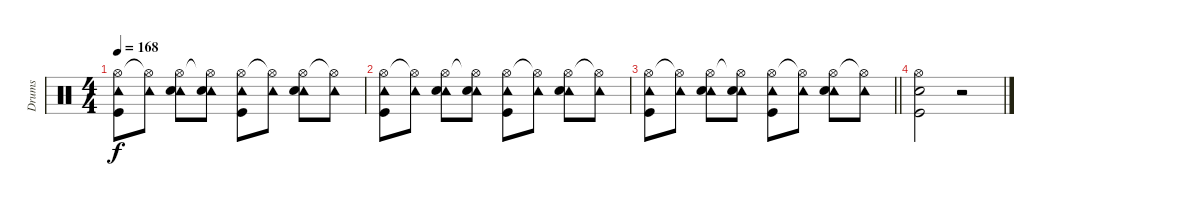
\track ("Drums" "Drums") {instrument percussion}
\staff {score}
\articulation defaults
\ts (4 4)
\tempo 168
\clef neutral
\ks c
("Hi-Hat (open)" "Tambourine (hit)" "Kick (hit)").8{dy f} ("Hi-Hat (open)"{t} "Tambourine (hit)").8 ("Hi-Hat (open)" "Tambourine (hit)" "Snare (hit) 2").8 ("Hi-Hat (open)"{t} "Tambourine (hit)" "Snare (hit) 2").8 ("Hi-Hat (open)" "Tambourine (hit)" "Kick (hit)").8 ("Hi-Hat (open)"{t} "Tambourine (hit)").8 ("Hi-Hat (open)" "Tambourine (hit)" "Snare (hit) 2").8 ("Hi-Hat (open)"{t} "Tambourine (hit)").8 |
("Hi-Hat (open)" "Tambourine (hit)" "Kick (hit)").8 ("Hi-Hat (open)"{t} "Tambourine (hit)").8 ("Hi-Hat (open)" "Tambourine (hit)" "Snare (hit) 2").8 ("Hi-Hat (open)"{t} "Tambourine (hit)" "Snare (hit) 2").8 ("Hi-Hat (open)" "Tambourine (hit)" "Kick (hit)").8 ("Hi-Hat (open)"{t} "Tambourine (hit)").8 ("Hi-Hat (open)" "Tambourine (hit)" "Snare (hit) 2").8 ("Hi-Hat (open)"{t} "Tambourine (hit)").8 |
\barLineRight lightlight
("Hi-Hat (open)" "Tambourine (hit)" "Kick (hit)").8 ("Hi-Hat (open)"{t} "Tambourine (hit)").8 ("Hi-Hat (open)" "Tambourine (hit)" "Snare (hit) 2").8 ("Hi-Hat (open)"{t} "Tambourine (hit)" "Snare (hit) 2").8 ("Hi-Hat (open)" "Tambourine (hit)" "Kick (hit)").8 ("Hi-Hat (open)"{t} "Tambourine (hit)").8 ("Hi-Hat (open)" "Tambourine (hit)" "Snare (hit) 2").8 ("Hi-Hat (open)"{t} "Tambourine (hit)").8 |
("Hi-Hat (open)" "Snare (hit) 2" "Kick (hit)").2 r.2
